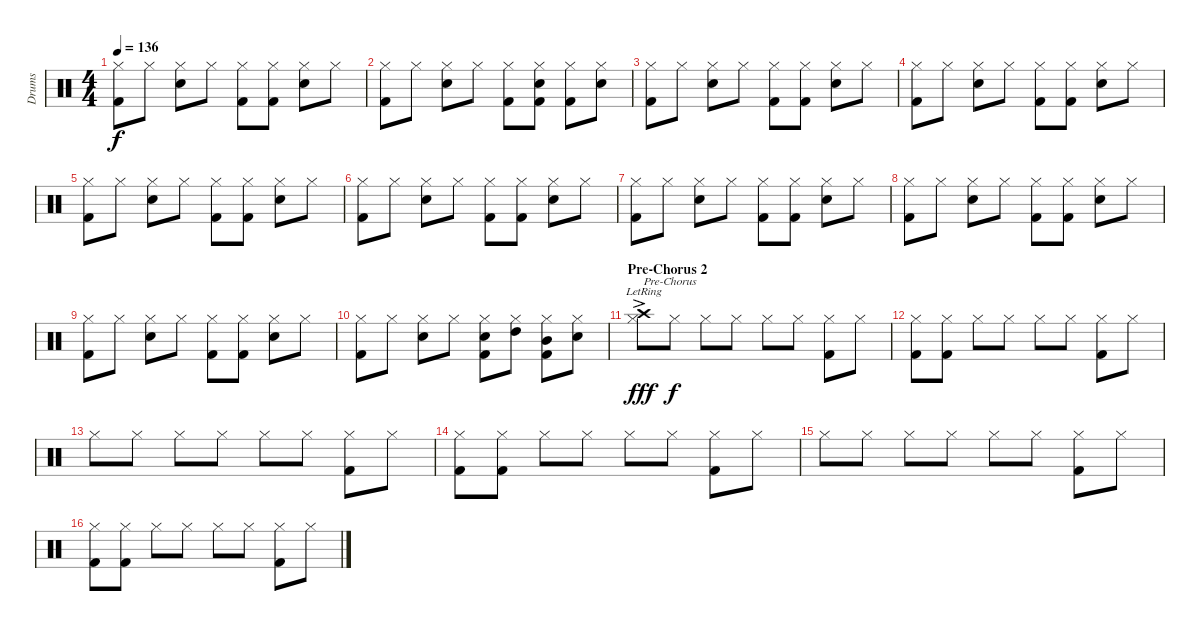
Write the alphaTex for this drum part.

\track ("Drums" "Drums") {instrument percussion}
\staff {score}
\articulation defaults
\ts (4 4)
\tempo 136
\clef neutral
\ks c
("Hi-Hat (closed)" "Kick (hit) 2").8{dy f} "Hi-Hat (closed)".8 ("Snare (hit) 2" "Hi-Hat (closed)").8 "Hi-Hat (closed)".8 ("Hi-Hat (closed)" "Kick (hit) 2").8 ("Hi-Hat (closed)" "Kick (hit) 2").8 ("Snare (hit) 2" "Hi-Hat (closed)").8 "Hi-Hat (closed)".8 |
("Hi-Hat (closed)" "Kick (hit) 2").8 "Hi-Hat (closed)".8 ("Snare (hit) 2" "Hi-Hat (closed)").8 "Hi-Hat (closed)".8 ("Hi-Hat (closed)" "Kick (hit) 2").8 ("Snare (hit) 2" "Hi-Hat (closed)" "Kick (hit) 2").8 ("Hi-Hat (closed)" "Kick (hit) 2").8 ("Snare (hit) 2" "Hi-Hat (closed)").8 |
("Hi-Hat (closed)" "Kick (hit) 2").8 "Hi-Hat (closed)".8 ("Snare (hit) 2" "Hi-Hat (closed)").8 "Hi-Hat (closed)".8 ("Hi-Hat (closed)" "Kick (hit) 2").8 ("Hi-Hat (closed)" "Kick (hit) 2").8 ("Snare (hit) 2" "Hi-Hat (closed)").8 "Hi-Hat (closed)".8 |
("Hi-Hat (closed)" "Kick (hit) 2").8 "Hi-Hat (closed)".8 ("Snare (hit) 2" "Hi-Hat (closed)").8 "Hi-Hat (closed)".8 ("Hi-Hat (closed)" "Kick (hit) 2").8 ("Hi-Hat (closed)" "Kick (hit) 2").8 ("Snare (hit) 2" "Hi-Hat (closed)").8 "Hi-Hat (closed)".8 |
("Hi-Hat (closed)" "Kick (hit) 2").8 "Hi-Hat (closed)".8 ("Snare (hit) 2" "Hi-Hat (closed)").8 "Hi-Hat (closed)".8 ("Hi-Hat (closed)" "Kick (hit) 2").8 ("Hi-Hat (closed)" "Kick (hit) 2").8 ("Snare (hit) 2" "Hi-Hat (closed)").8 "Hi-Hat (closed)".8 |
("Hi-Hat (closed)" "Kick (hit) 2").8 "Hi-Hat (closed)".8 ("Snare (hit) 2" "Hi-Hat (closed)").8 "Hi-Hat (closed)".8 ("Hi-Hat (closed)" "Kick (hit) 2").8 ("Hi-Hat (closed)" "Kick (hit) 2").8 ("Snare (hit) 2" "Hi-Hat (closed)").8 "Hi-Hat (closed)".8 |
("Hi-Hat (closed)" "Kick (hit) 2").8 "Hi-Hat (closed)".8 ("Snare (hit) 2" "Hi-Hat (closed)").8 "Hi-Hat (closed)".8 ("Hi-Hat (closed)" "Kick (hit) 2").8 ("Hi-Hat (closed)" "Kick (hit) 2").8 ("Snare (hit) 2" "Hi-Hat (closed)").8 "Hi-Hat (closed)".8 |
("Hi-Hat (closed)" "Kick (hit) 2").8 "Hi-Hat (closed)".8 ("Snare (hit) 2" "Hi-Hat (closed)").8 "Hi-Hat (closed)".8 ("Hi-Hat (closed)" "Kick (hit) 2").8 ("Hi-Hat (closed)" "Kick (hit) 2").8 ("Snare (hit) 2" "Hi-Hat (closed)").8 "Hi-Hat (closed)".8 |
("Hi-Hat (closed)" "Kick (hit) 2").8 "Hi-Hat (closed)".8 ("Snare (hit) 2" "Hi-Hat (closed)").8 "Hi-Hat (closed)".8 ("Hi-Hat (closed)" "Kick (hit) 2").8 ("Hi-Hat (closed)" "Kick (hit) 2").8 ("Snare (hit) 2" "Hi-Hat (closed)").8 "Hi-Hat (closed)".8 |
("Hi-Hat (closed)" "Kick (hit) 2").8 "Hi-Hat (closed)".8 ("Snare (hit) 2" "Hi-Hat (closed)").8 "Hi-Hat (closed)".8 ("Snare (hit) 2" "Hi-Hat (closed)" "Kick (hit) 2").8 ("High Tom (hit)" "Hi-Hat (closed)").8 ("Mid Tom (hit)" "Hi-Hat (closed)" "Kick (hit) 2").8 ("Snare (hit) 2" "Hi-Hat (closed)").8 |
\section ("" "Pre-Chorus 2")
("Crash high (hit)"{ac lr} "Hi-Hat (closed)").8{txt "Pre-Chorus" dy fff volume 11} "Hi-Hat (closed)".8{dy f} "Hi-Hat (closed)".8 "Hi-Hat (closed)".8 "Hi-Hat (closed)".8 "Hi-Hat (closed)".8 ("Hi-Hat (closed)" "Kick (hit) 2").8 "Hi-Hat (closed)".8 |
("Hi-Hat (closed)" "Kick (hit) 2").8 ("Hi-Hat (closed)" "Kick (hit) 2").8 "Hi-Hat (closed)".8 "Hi-Hat (closed)".8 "Hi-Hat (closed)".8 "Hi-Hat (closed)".8 ("Hi-Hat (closed)" "Kick (hit) 2").8 "Hi-Hat (closed)".8 |
"Hi-Hat (closed)".8 "Hi-Hat (closed)".8 "Hi-Hat (closed)".8 "Hi-Hat (closed)".8 "Hi-Hat (closed)".8 "Hi-Hat (closed)".8 ("Hi-Hat (closed)" "Kick (hit) 2").8 "Hi-Hat (closed)".8 |
("Hi-Hat (closed)" "Kick (hit) 2").8 ("Hi-Hat (closed)" "Kick (hit) 2").8 "Hi-Hat (closed)".8 "Hi-Hat (closed)".8 "Hi-Hat (closed)".8 "Hi-Hat (closed)".8 ("Hi-Hat (closed)" "Kick (hit) 2").8 "Hi-Hat (closed)".8 |
"Hi-Hat (closed)".8 "Hi-Hat (closed)".8 "Hi-Hat (closed)".8 "Hi-Hat (closed)".8 "Hi-Hat (closed)".8 "Hi-Hat (closed)".8 ("Hi-Hat (closed)" "Kick (hit) 2").8 "Hi-Hat (closed)".8 |
("Hi-Hat (closed)" "Kick (hit) 2").8 ("Hi-Hat (closed)" "Kick (hit) 2").8 "Hi-Hat (closed)".8 "Hi-Hat (closed)".8 "Hi-Hat (closed)".8 "Hi-Hat (closed)".8 ("Hi-Hat (closed)" "Kick (hit) 2").8 "Hi-Hat (closed)".8
